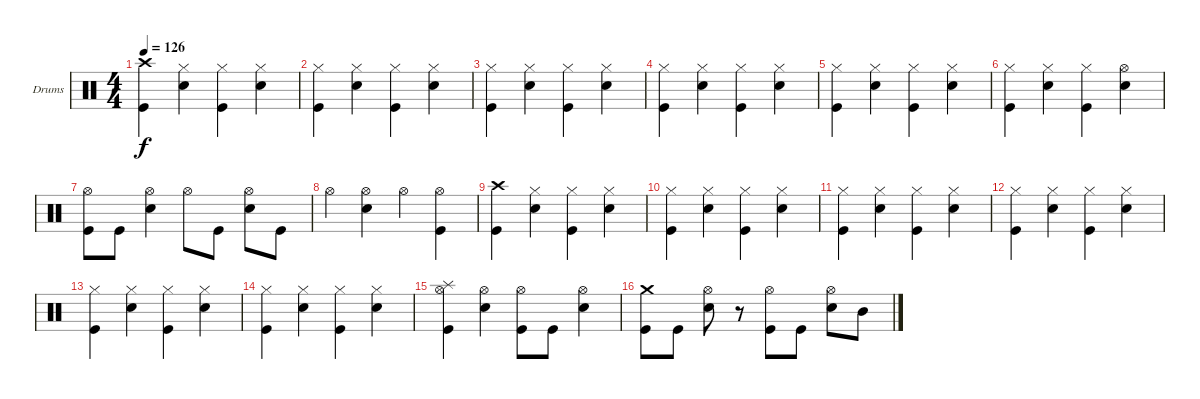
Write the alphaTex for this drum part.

\bracketExtendMode groupsimilarinstruments
\firstSystemTrackNameOrientation horizontal
\otherSystemsTrackNameOrientation horizontal
\track ("Drumkit" "Drums") {instrument percussion}
\staff {score}
\articulation defaults
\ts (4 4)
\tempo 126
\clef neutral
\ks c
("Kick (hit)" "Crash high (hit)").4{dy f} ("Hi-Hat (closed)" "Snare (hit) 2").4 ("Hi-Hat (closed)" "Kick (hit)").4 ("Hi-Hat (closed)" "Snare (hit) 2").4 |
("Hi-Hat (closed)" "Kick (hit)").4 ("Hi-Hat (closed)" "Snare (hit) 2").4 ("Hi-Hat (closed)" "Kick (hit)").4 ("Hi-Hat (closed)" "Snare (hit) 2").4 |
("Hi-Hat (closed)" "Kick (hit)").4 ("Hi-Hat (closed)" "Snare (hit) 2").4 ("Hi-Hat (closed)" "Kick (hit)").4 ("Hi-Hat (closed)" "Snare (hit) 2").4 |
("Hi-Hat (closed)" "Kick (hit)").4 ("Hi-Hat (closed)" "Snare (hit) 2").4 ("Hi-Hat (closed)" "Kick (hit)").4 ("Hi-Hat (closed)" "Snare (hit) 2").4 |
("Hi-Hat (closed)" "Kick (hit)").4 ("Hi-Hat (closed)" "Snare (hit) 2").4 ("Hi-Hat (closed)" "Kick (hit)").4 ("Hi-Hat (closed)" "Snare (hit) 2").4 |
("Hi-Hat (closed)" "Kick (hit)").4 ("Hi-Hat (closed)" "Snare (hit) 2").4 ("Hi-Hat (closed)" "Kick (hit)").4 ("Hi-Hat (open)" "Snare (hit) 2").4 |
("Hi-Hat (open)" "Kick (hit)").8 "Kick (hit)".8 ("Snare (hit) 2" "Hi-Hat (open)").4 "Hi-Hat (open)".8 "Kick (hit)".8 ("Snare (hit) 2" "Hi-Hat (open)").8 "Kick (hit)".8 |
"Hi-Hat (open)".4 ("Snare (hit) 2" "Hi-Hat (open)").4 "Hi-Hat (open)".4 ("Hi-Hat (open)" "Kick (hit)").4 |
("Kick (hit)" "Crash high (hit)").4 ("Hi-Hat (closed)" "Snare (hit) 2").4 ("Hi-Hat (closed)" "Kick (hit)").4 ("Hi-Hat (closed)" "Snare (hit) 2").4 |
("Hi-Hat (closed)" "Kick (hit)").4 ("Hi-Hat (closed)" "Snare (hit) 2").4 ("Hi-Hat (closed)" "Kick (hit)").4 ("Hi-Hat (closed)" "Snare (hit) 2").4 |
("Hi-Hat (closed)" "Kick (hit)").4 ("Hi-Hat (closed)" "Snare (hit) 2").4 ("Hi-Hat (closed)" "Kick (hit)").4 ("Hi-Hat (closed)" "Snare (hit) 2").4 |
("Hi-Hat (closed)" "Kick (hit)").4 ("Hi-Hat (closed)" "Snare (hit) 2").4 ("Hi-Hat (closed)" "Kick (hit)").4 ("Hi-Hat (closed)" "Snare (hit) 2").4 |
("Hi-Hat (closed)" "Kick (hit)").4 ("Hi-Hat (closed)" "Snare (hit) 2").4 ("Hi-Hat (closed)" "Kick (hit)").4 ("Hi-Hat (closed)" "Snare (hit) 2").4 |
("Hi-Hat (closed)" "Kick (hit)").4 ("Hi-Hat (closed)" "Snare (hit) 2").4 ("Hi-Hat (closed)" "Kick (hit)").4 ("Hi-Hat (closed)" "Snare (hit) 2").4 |
("Splash (hit)" "Hi-Hat (open)" "Kick (hit)").4 ("Hi-Hat (open)" "Snare (hit) 2").4 ("Hi-Hat (open)" "Kick (hit)").8 "Kick (hit)".8 ("Hi-Hat (open)" "Snare (hit) 2").4 |
("Crash medium (hit)" "Kick (hit)").8 "Kick (hit)".8 ("Hi-Hat (open)" "Snare (hit) 2").8 r.8 ("Hi-Hat (open)" "Kick (hit)").8 "Kick (hit)".8 ("Hi-Hat (open)" "Snare (hit) 2").8 "Mid Tom (hit)".8
